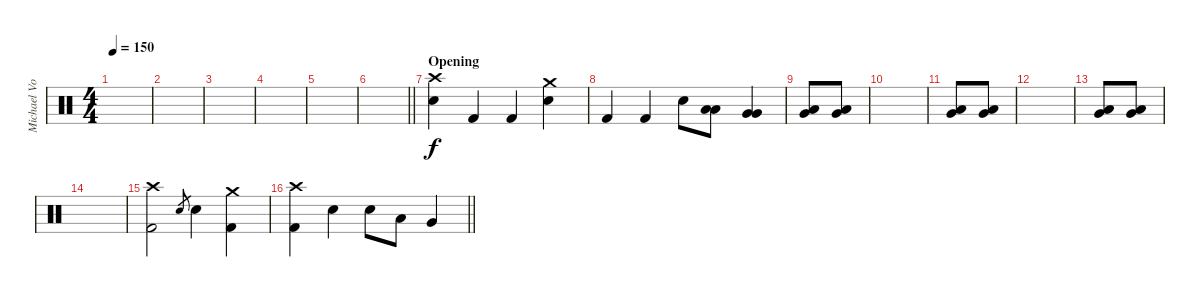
\track ("Michael Von Knorring" "Michael Vo") {instrument percussion}
\staff {score}
\articulation defaults
\ts (4 4)
\tempo 150
\clef neutral
\ks c
|
|
|
|
|
\barLineRight lightlight
|
\section ("" "Opening")
("Crash high (hit)" "Snare (hit) 2").4 "Kick (hit) 2".4 "Kick (hit) 2".4 ("Crash medium (hit)" "Snare (hit) 2").4 |
"Kick (hit) 2".4 "Kick (hit) 2".4 "Snare (hit) 2".8 ("Low Tom (hit)" "Low Tom (hit)").8 ("Very Low Tom (hit)" "Very Low Tom (hit)").4 |
("Very Low Tom (hit)" "Low Floor Tom (hit)").8 ("Very Low Tom (hit)" "Low Floor Tom (hit)").8 |
|
("Very Low Tom (hit)" "Low Floor Tom (hit)").8 ("Very Low Tom (hit)" "Low Floor Tom (hit)").8 |
|
("Very Low Tom (hit)" "Low Floor Tom (hit)").8 ("Very Low Tom (hit)" "Low Floor Tom (hit)").8 |
|
("Crash high (hit)" "Kick (hit) 2").2 "Snare (hit) 2".8{gr} "Snare (hit) 2".4 ("Crash medium (hit)" "Kick (hit) 2").4 |
\barLineRight lightlight
("Crash high (hit)" "Kick (hit) 2").4 "Snare (hit) 2".4 "Snare (hit) 2".8 "Low Tom (hit)".8 "Very Low Tom (hit)".4
